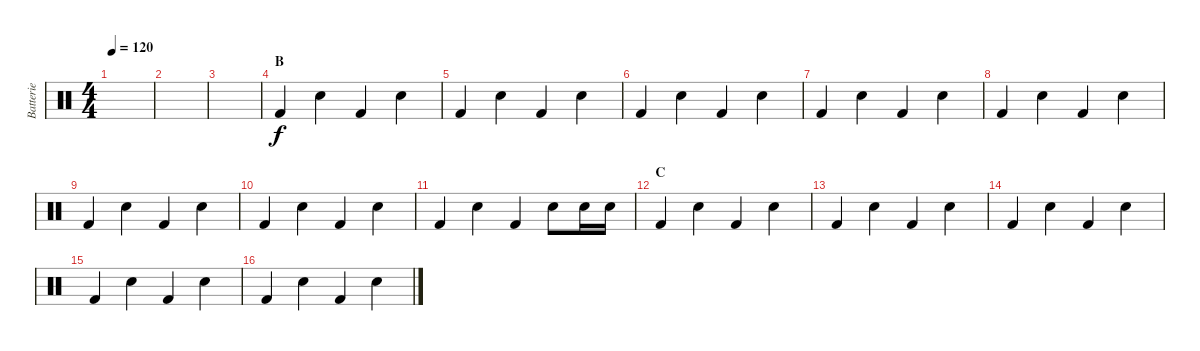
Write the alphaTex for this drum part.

\track ("Batterie" "Batterie") {instrument percussion}
\staff {score}
\articulation defaults
\ts (4 4)
\tempo 120
\clef neutral
\ks c
|
|
|
\section ("" "B")
"Kick (hit) 2".4{dy f} "Electric Snare (hit)".4 "Kick (hit) 2".4 "Electric Snare (hit)".4 |
"Kick (hit) 2".4 "Electric Snare (hit)".4 "Kick (hit) 2".4 "Electric Snare (hit)".4 |
"Kick (hit) 2".4 "Electric Snare (hit)".4 "Kick (hit) 2".4 "Electric Snare (hit)".4 |
"Kick (hit) 2".4 "Electric Snare (hit)".4 "Kick (hit) 2".4 "Electric Snare (hit)".4 |
"Kick (hit) 2".4 "Electric Snare (hit)".4 "Kick (hit) 2".4 "Electric Snare (hit)".4 |
"Kick (hit) 2".4 "Electric Snare (hit)".4 "Kick (hit) 2".4 "Electric Snare (hit)".4 |
"Kick (hit) 2".4 "Electric Snare (hit)".4 "Kick (hit) 2".4 "Electric Snare (hit)".4 |
"Kick (hit) 2".4 "Electric Snare (hit)".4 "Kick (hit) 2".4 "Electric Snare (hit)".8 "Electric Snare (hit)".16 "Electric Snare (hit)".16 |
\section ("" "C")
"Kick (hit) 2".4 "Electric Snare (hit)".4 "Kick (hit) 2".4 "Electric Snare (hit)".4 |
"Kick (hit) 2".4 "Electric Snare (hit)".4 "Kick (hit) 2".4 "Electric Snare (hit)".4 |
"Kick (hit) 2".4 "Electric Snare (hit)".4 "Kick (hit) 2".4 "Electric Snare (hit)".4 |
"Kick (hit) 2".4 "Electric Snare (hit)".4 "Kick (hit) 2".4 "Electric Snare (hit)".4 |
"Kick (hit) 2".4 "Electric Snare (hit)".4 "Kick (hit) 2".4 "Electric Snare (hit)".4
